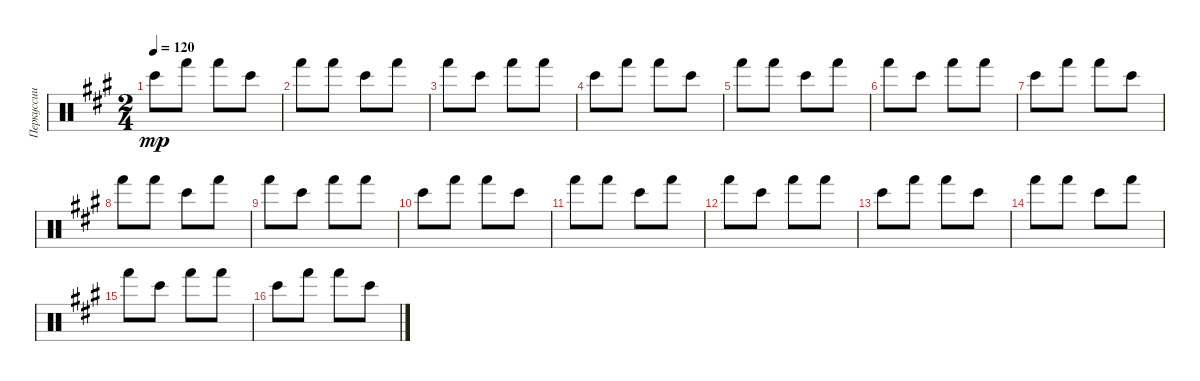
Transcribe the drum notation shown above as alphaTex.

\track ("Перкуссии" "Перкуссии") {instrument percussion}
\staff {score}
\articulation defaults
\ts (2 4)
\tempo 120
\clef neutral
\ks f#minor "Bongo High (hit)".8{dy mp} "Hand (hit)".8 "Hand (hit)".8 "Bongo High (hit)".8
|
"Hand (hit)".8 "Hand (hit)".8 "Bongo High (hit)".8 "Hand (hit)".8 |
"Hand (hit)".8 "Bongo High (hit)".8 "Hand (hit)".8 "Hand (hit)".8 |
"Bongo High (hit)".8 "Hand (hit)".8 "Hand (hit)".8 "Bongo High (hit)".8 |
"Hand (hit)".8 "Hand (hit)".8 "Bongo High (hit)".8 "Hand (hit)".8 |
"Hand (hit)".8 "Bongo High (hit)".8 "Hand (hit)".8 "Hand (hit)".8 |
"Bongo High (hit)".8 "Hand (hit)".8 "Hand (hit)".8 "Bongo High (hit)".8 |
"Hand (hit)".8 "Hand (hit)".8 "Bongo High (hit)".8 "Hand (hit)".8 |
"Hand (hit)".8 "Bongo High (hit)".8 "Hand (hit)".8 "Hand (hit)".8 |
"Bongo High (hit)".8 "Hand (hit)".8 "Hand (hit)".8 "Bongo High (hit)".8 |
"Hand (hit)".8 "Hand (hit)".8 "Bongo High (hit)".8 "Hand (hit)".8 |
"Hand (hit)".8 "Bongo High (hit)".8 "Hand (hit)".8 "Hand (hit)".8 |
"Bongo High (hit)".8 "Hand (hit)".8 "Hand (hit)".8 "Bongo High (hit)".8 |
"Hand (hit)".8 "Hand (hit)".8 "Bongo High (hit)".8 "Hand (hit)".8 |
"Hand (hit)".8 "Bongo High (hit)".8 "Hand (hit)".8 "Hand (hit)".8 |
"Bongo High (hit)".8 "Hand (hit)".8 "Hand (hit)".8 "Bongo High (hit)".8
